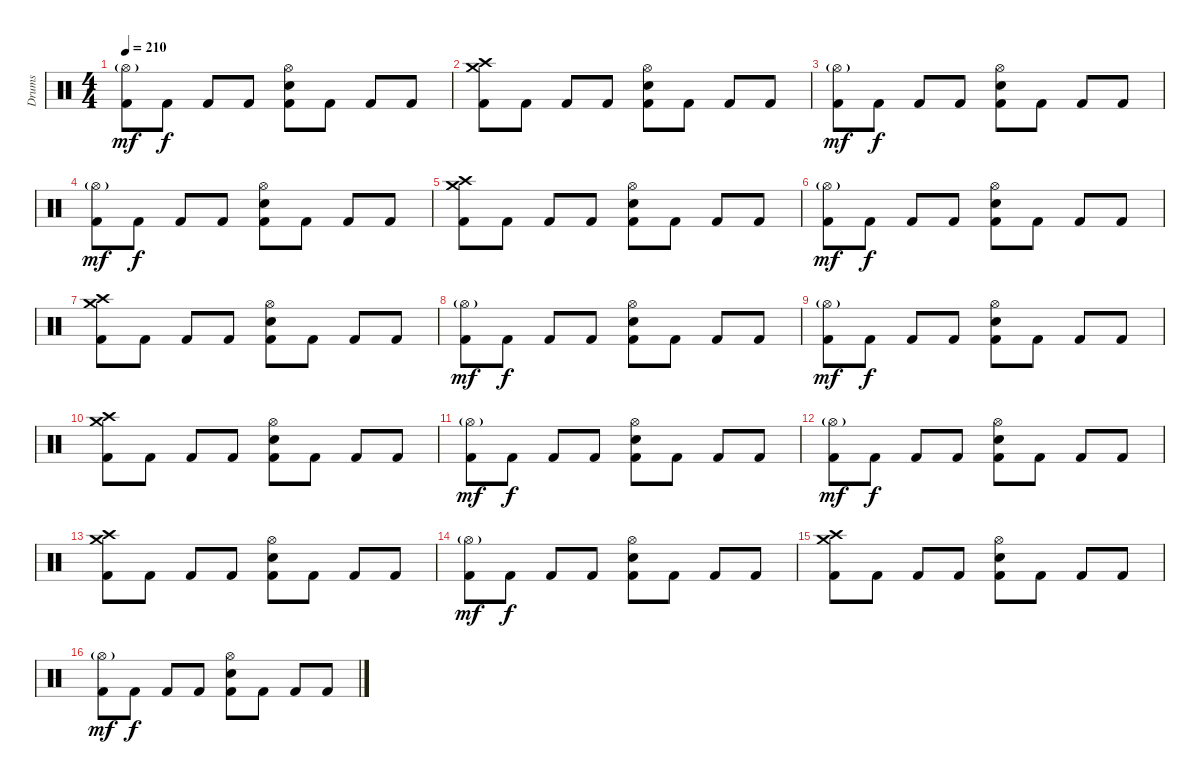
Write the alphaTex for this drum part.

\track ("Drums" "Drums") {instrument percussion}
\staff {score}
\articulation defaults
\ts (4 4)
\tempo 210
\clef neutral
\ks c
("Hi-Hat (open)"{g} "Kick (hit) 2").8{dy mf} "Kick (hit) 2".8{dy f} "Kick (hit) 2".8 "Kick (hit) 2".8 ("Hi-Hat (open)" "Electric Snare (hit)" "Kick (hit) 2").8 "Kick (hit) 2".8 "Kick (hit) 2".8 "Kick (hit) 2".8 |
("Crash high (hit)" "Crash medium (hit)" "Kick (hit) 2").8 "Kick (hit) 2".8 "Kick (hit) 2".8 "Kick (hit) 2".8 ("Hi-Hat (open)" "Electric Snare (hit)" "Kick (hit) 2").8 "Kick (hit) 2".8 "Kick (hit) 2".8 "Kick (hit) 2".8 |
("Hi-Hat (open)"{g} "Kick (hit) 2").8{dy mf} "Kick (hit) 2".8{dy f} "Kick (hit) 2".8 "Kick (hit) 2".8 ("Hi-Hat (open)" "Electric Snare (hit)" "Kick (hit) 2").8 "Kick (hit) 2".8 "Kick (hit) 2".8 "Kick (hit) 2".8 |
("Hi-Hat (open)"{g} "Kick (hit) 2").8{dy mf} "Kick (hit) 2".8{dy f} "Kick (hit) 2".8 "Kick (hit) 2".8 ("Hi-Hat (open)" "Electric Snare (hit)" "Kick (hit) 2").8 "Kick (hit) 2".8 "Kick (hit) 2".8 "Kick (hit) 2".8 |
("Crash high (hit)" "Crash medium (hit)" "Kick (hit) 2").8 "Kick (hit) 2".8 "Kick (hit) 2".8 "Kick (hit) 2".8 ("Hi-Hat (open)" "Electric Snare (hit)" "Kick (hit) 2").8 "Kick (hit) 2".8 "Kick (hit) 2".8 "Kick (hit) 2".8 |
("Hi-Hat (open)"{g} "Kick (hit) 2").8{dy mf} "Kick (hit) 2".8{dy f} "Kick (hit) 2".8 "Kick (hit) 2".8 ("Hi-Hat (open)" "Electric Snare (hit)" "Kick (hit) 2").8 "Kick (hit) 2".8 "Kick (hit) 2".8 "Kick (hit) 2".8 |
("Crash high (hit)" "Crash medium (hit)" "Kick (hit) 2").8 "Kick (hit) 2".8 "Kick (hit) 2".8 "Kick (hit) 2".8 ("Hi-Hat (open)" "Electric Snare (hit)" "Kick (hit) 2").8 "Kick (hit) 2".8 "Kick (hit) 2".8 "Kick (hit) 2".8 |
("Hi-Hat (open)"{g} "Kick (hit) 2").8{dy mf} "Kick (hit) 2".8{dy f} "Kick (hit) 2".8 "Kick (hit) 2".8 ("Hi-Hat (open)" "Electric Snare (hit)" "Kick (hit) 2").8 "Kick (hit) 2".8 "Kick (hit) 2".8 "Kick (hit) 2".8 |
("Hi-Hat (open)"{g} "Kick (hit) 2").8{dy mf} "Kick (hit) 2".8{dy f} "Kick (hit) 2".8 "Kick (hit) 2".8 ("Hi-Hat (open)" "Electric Snare (hit)" "Kick (hit) 2").8 "Kick (hit) 2".8 "Kick (hit) 2".8 "Kick (hit) 2".8 |
("Crash high (hit)" "Crash medium (hit)" "Kick (hit) 2").8 "Kick (hit) 2".8 "Kick (hit) 2".8 "Kick (hit) 2".8 ("Hi-Hat (open)" "Electric Snare (hit)" "Kick (hit) 2").8 "Kick (hit) 2".8 "Kick (hit) 2".8 "Kick (hit) 2".8 |
("Hi-Hat (open)"{g} "Kick (hit) 2").8{dy mf} "Kick (hit) 2".8{dy f} "Kick (hit) 2".8 "Kick (hit) 2".8 ("Hi-Hat (open)" "Electric Snare (hit)" "Kick (hit) 2").8 "Kick (hit) 2".8 "Kick (hit) 2".8 "Kick (hit) 2".8 |
("Hi-Hat (open)"{g} "Kick (hit) 2").8{dy mf} "Kick (hit) 2".8{dy f} "Kick (hit) 2".8 "Kick (hit) 2".8 ("Hi-Hat (open)" "Electric Snare (hit)" "Kick (hit) 2").8 "Kick (hit) 2".8 "Kick (hit) 2".8 "Kick (hit) 2".8 |
("Crash high (hit)" "Crash medium (hit)" "Kick (hit) 2").8 "Kick (hit) 2".8 "Kick (hit) 2".8 "Kick (hit) 2".8 ("Hi-Hat (open)" "Electric Snare (hit)" "Kick (hit) 2").8 "Kick (hit) 2".8 "Kick (hit) 2".8 "Kick (hit) 2".8 |
("Hi-Hat (open)"{g} "Kick (hit) 2").8{dy mf} "Kick (hit) 2".8{dy f} "Kick (hit) 2".8 "Kick (hit) 2".8 ("Hi-Hat (open)" "Electric Snare (hit)" "Kick (hit) 2").8 "Kick (hit) 2".8 "Kick (hit) 2".8 "Kick (hit) 2".8 |
("Crash high (hit)" "Crash medium (hit)" "Kick (hit) 2").8 "Kick (hit) 2".8 "Kick (hit) 2".8 "Kick (hit) 2".8 ("Hi-Hat (open)" "Electric Snare (hit)" "Kick (hit) 2").8 "Kick (hit) 2".8 "Kick (hit) 2".8 "Kick (hit) 2".8 |
("Hi-Hat (open)"{g} "Kick (hit) 2").8{dy mf} "Kick (hit) 2".8{dy f} "Kick (hit) 2".8 "Kick (hit) 2".8 ("Hi-Hat (open)" "Electric Snare (hit)" "Kick (hit) 2").8 "Kick (hit) 2".8 "Kick (hit) 2".8 "Kick (hit) 2".8
